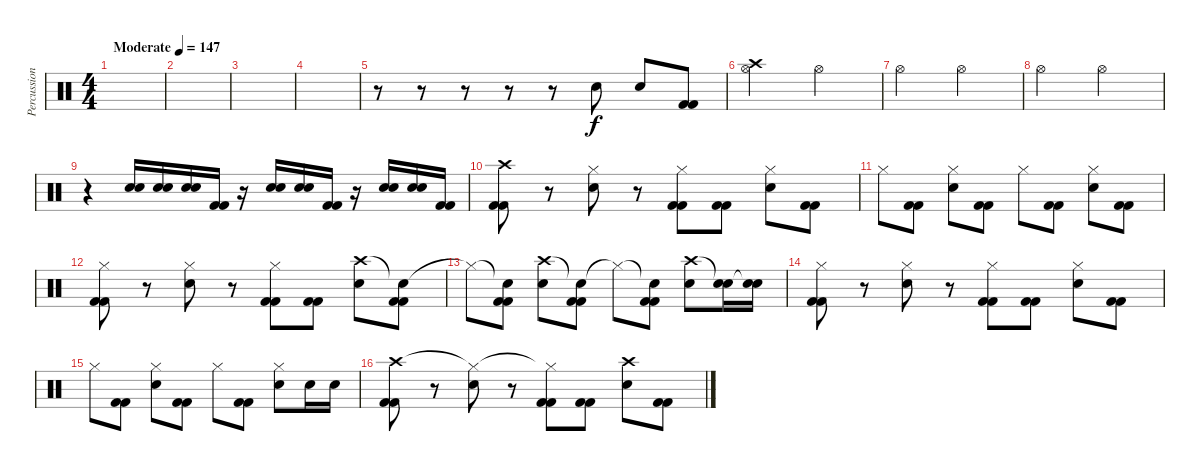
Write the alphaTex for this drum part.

\track ("Percussions" "Percussion") {instrument percussion}
\staff {score}
\articulation defaults
\ts (4 4)
\tempo (147 "Moderate")
\clef neutral
\ks c
|
|
|
|
r.8 r.8 r.8 r.8 r.8 "Snare (hit) 2".8 "Snare (hit) 2".8 ("Kick (hit) 2" "Kick (hit) 2").8 |
("Hi-Hat (open)" "Crash high (hit)").2 "Hi-Hat (open)".2 |
"Hi-Hat (open)".2 "Hi-Hat (open)".2 |
"Hi-Hat (open)".2 "Hi-Hat (open)".2 |
r.4 ("Snare (hit) 2" "Snare (hit) 2").16 ("Snare (hit) 2" "Snare (hit) 2").16 ("Snare (hit) 2" "Snare (hit) 2").16 ("Kick (hit) 2" "Kick (hit) 2").16 r.16 ("Snare (hit) 2" "Snare (hit) 2").16 ("Snare (hit) 2" "Snare (hit) 2").16 ("Kick (hit) 2" "Kick (hit) 2").16 r.16 ("Snare (hit) 2" "Snare (hit) 2").16 ("Snare (hit) 2" "Snare (hit) 2").16 ("Kick (hit) 2" "Kick (hit) 2").16 |
("Crash high (hit)" "Kick (hit) 2" "Kick (hit) 2").8 r.8 ("Hi-Hat (closed)" "Snare (hit) 2").8 r.8 ("Hi-Hat (closed)" "Kick (hit) 2" "Kick (hit) 2").8 ("Kick (hit) 2" "Kick (hit) 2").8 ("Hi-Hat (closed)" "Snare (hit) 2").8 ("Kick (hit) 2" "Kick (hit) 2").8 |
"Hi-Hat (closed)".8 ("Kick (hit) 2" "Kick (hit) 2").8 ("Hi-Hat (closed)" "Snare (hit) 2").8 ("Kick (hit) 2" "Kick (hit) 2").8 "Hi-Hat (closed)".8 ("Kick (hit) 2" "Kick (hit) 2").8 ("Hi-Hat (closed)" "Snare (hit) 2").8 ("Kick (hit) 2" "Kick (hit) 2").8 |
("Hi-Hat (closed)" "Kick (hit) 2" "Kick (hit) 2").8 r.8 ("Hi-Hat (closed)" "Snare (hit) 2").8 r.8 ("Hi-Hat (closed)" "Kick (hit) 2" "Kick (hit) 2").8 ("Kick (hit) 2" "Kick (hit) 2").8 ("Crash high (hit)" "Snare (hit) 2").8 ("Snare (hit)"{t} "Kick (hit) 2" "Kick (hit) 2").8 |
"Hi-Hat (closed)"{t}.8 ("Snare (hit)"{t} "Kick (hit) 2" "Kick (hit) 2").8 ("Crash high (hit)" "Snare (hit) 2").8 ("Snare (hit)"{t} "Kick (hit) 2" "Kick (hit) 2").8 "Hi-Hat (closed)"{t}.8 ("Snare (hit)"{t} "Kick (hit) 2" "Kick (hit) 2").8 ("Crash high (hit)" "Snare (hit) 2").8 ("Snare (hit)"{t} "Snare (hit) 2").16 ("Snare (hit)"{t} "Snare (hit) 2").16 |
("Hi-Hat (closed)" "Kick (hit) 2" "Kick (hit) 2").8 r.8 ("Hi-Hat (closed)" "Snare (hit) 2").8 r.8 ("Hi-Hat (closed)" "Kick (hit) 2" "Kick (hit) 2").8 ("Kick (hit) 2" "Kick (hit) 2").8 ("Hi-Hat (closed)" "Snare (hit) 2").8 ("Kick (hit) 2" "Kick (hit) 2").8 |
"Hi-Hat (closed)".8 ("Kick (hit) 2" "Kick (hit) 2").8 ("Hi-Hat (closed)" "Snare (hit) 2").8 ("Kick (hit) 2" "Kick (hit) 2").8 "Hi-Hat (closed)".8 ("Kick (hit) 2" "Kick (hit) 2").8 ("Hi-Hat (closed)" "Snare (hit) 2").8 "Snare (hit) 2".16 "Snare (hit) 2".16 |
("Crash high (hit)" "Kick (hit) 2" "Kick (hit) 2").8 r.8 ("Hi-Hat (closed)"{t} "Snare (hit) 2").8 r.8 ("Hi-Hat (closed)"{t} "Kick (hit) 2" "Kick (hit) 2").8 ("Kick (hit) 2" "Kick (hit) 2").8 ("Crash high (hit)" "Snare (hit) 2").8 ("Kick (hit) 2" "Kick (hit) 2").8
